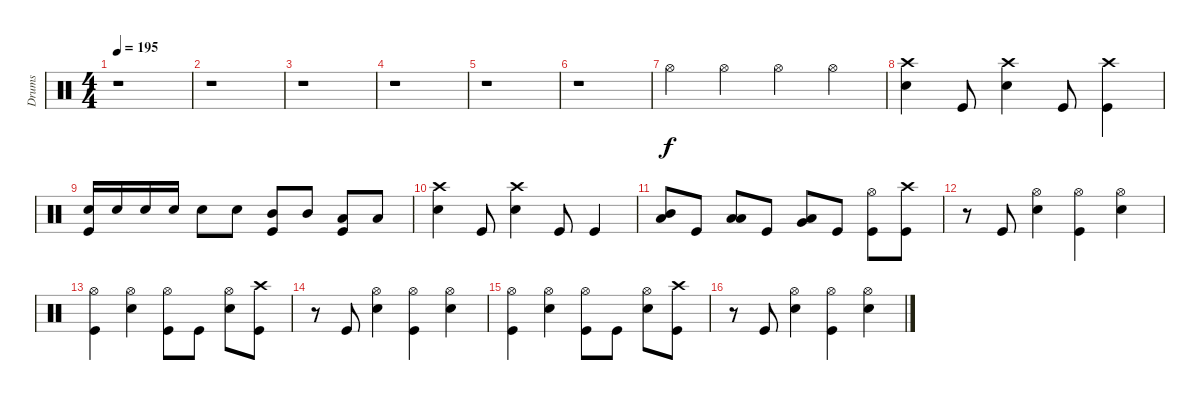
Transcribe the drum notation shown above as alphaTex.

\track ("Drums" "Drums") {instrument percussion}
\staff {score}
\articulation defaults
\ts (4 4)
\tempo 195
\clef neutral
\ks c
r.1{dy f} |
r.1 |
r.1 |
r.1 |
r.1 |
r.1 |
"Hi-Hat (open)".4 "Hi-Hat (open)".4 "Hi-Hat (open)".4 "Hi-Hat (open)".4 |
("Crash high (hit)" "Electric Snare (hit)").4 "Kick (hit)".8 ("Crash high (hit)" "Electric Snare (hit)").4 "Kick (hit)".8 ("Crash high (hit)" "Kick (hit)").4 |
("Electric Snare (hit)" "Kick (hit)").16 "Electric Snare (hit)".16 "Electric Snare (hit)".16 "Electric Snare (hit)".16 "Electric Snare (hit)".8 "Electric Snare (hit)".8 ("Mid Tom (hit)" "Kick (hit)").8 "Mid Tom (hit)".8 ("Low Tom (hit)" "Kick (hit)").8 "Low Tom (hit)".8 |
("Crash high (hit)" "Electric Snare (hit)").4 "Kick (hit)".8 ("Crash high (hit)" "Electric Snare (hit)").4 "Kick (hit)".8 "Kick (hit)".4 |
("Mid Tom (hit)" "Low Tom (hit)").8 "Kick (hit)".8 ("Low Tom (hit)" "Low Tom (hit)").8 "Kick (hit)".8 ("Very Low Tom (hit)" "Low Floor Tom (hit)").8 "Kick (hit)".8 ("Hi-Hat (open)" "Kick (hit)").8 ("Crash high (hit)" "Kick (hit)").8 |
r.8 "Kick (hit)".8 ("Hi-Hat (open)" "Electric Snare (hit)").4 ("Hi-Hat (open)" "Kick (hit)").4 ("Hi-Hat (open)" "Electric Snare (hit)").4 |
("Hi-Hat (open)" "Kick (hit)").4 ("Hi-Hat (open)" "Electric Snare (hit)").4 ("Hi-Hat (open)" "Kick (hit)").8 "Kick (hit)".8 ("Hi-Hat (open)" "Electric Snare (hit)").8 ("Crash high (hit)" "Kick (hit)").8 |
r.8 "Kick (hit)".8 ("Hi-Hat (open)" "Electric Snare (hit)").4 ("Hi-Hat (open)" "Kick (hit)").4 ("Hi-Hat (open)" "Electric Snare (hit)").4 |
("Hi-Hat (open)" "Kick (hit)").4 ("Hi-Hat (open)" "Electric Snare (hit)").4 ("Hi-Hat (open)" "Kick (hit)").8 "Kick (hit)".8 ("Hi-Hat (open)" "Electric Snare (hit)").8 ("Crash high (hit)" "Kick (hit)").8 |
r.8 "Kick (hit)".8 ("Hi-Hat (open)" "Electric Snare (hit)").4 ("Hi-Hat (open)" "Kick (hit)").4 ("Hi-Hat (open)" "Electric Snare (hit)").4
